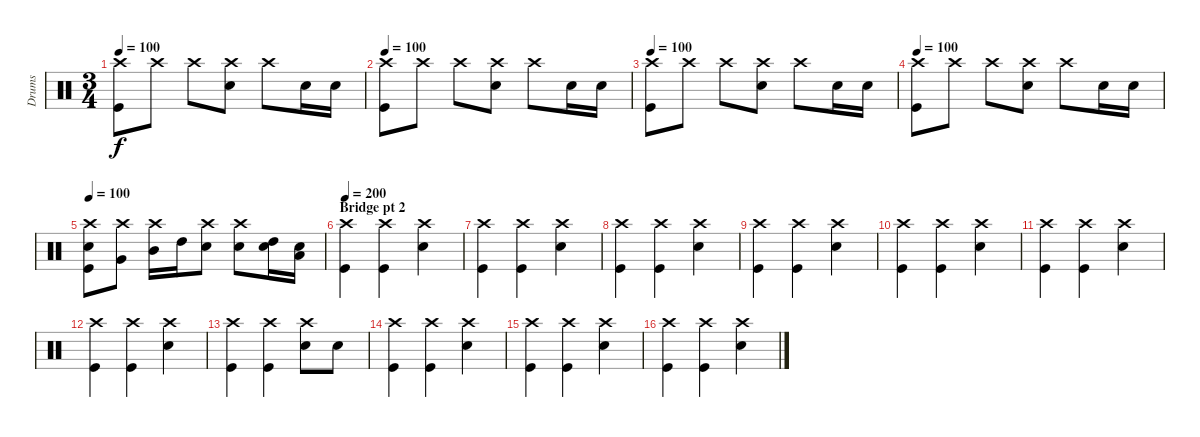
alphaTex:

\track ("Drums" "Drums") {instrument percussion}
\staff {score}
\articulation defaults
\ts (3 4)
\tempo 100
\clef neutral
\ks c
("Crash high (hit)" "Kick (hit)").8{dy f} "Crash high (hit)".8 "Crash high (hit)".8 ("Crash high (hit)" "Snare (hit) 2").8 "Crash high (hit)".8 "Snare (hit) 2".16 "Snare (hit) 2".16 |
\tempo 100
("Crash high (hit)" "Kick (hit)").8 "Crash high (hit)".8 "Crash high (hit)".8 ("Crash high (hit)" "Snare (hit) 2").8 "Crash high (hit)".8 "Snare (hit) 2".16 "Snare (hit) 2".16 |
\tempo 100
("Crash high (hit)" "Kick (hit)").8 "Crash high (hit)".8 "Crash high (hit)".8 ("Crash high (hit)" "Snare (hit) 2").8 "Crash high (hit)".8 "Snare (hit) 2".16 "Snare (hit) 2".16 |
\tempo 100
("Crash high (hit)" "Kick (hit)").8 "Crash high (hit)".8 "Crash high (hit)".8 ("Crash high (hit)" "Snare (hit) 2").8 "Crash high (hit)".8 "Snare (hit) 2".16 "Snare (hit) 2".16 |
\tempo 100
("Crash high (hit)" "Snare (hit) 2" "Kick (hit)").8 ("Crash high (hit)" "Very Low Tom (hit)").8 ("Crash high (hit)" "Mid Tom (hit)").16 "High Tom (hit)".16 ("Crash high (hit)" "Snare (hit) 2").8 ("Crash high (hit)" "Snare (hit) 2").8 ("High Tom (hit)" "Snare (hit) 2").16 ("Low Tom (hit)" "Snare (hit) 2").16 |
\section ("" "Bridge pt 2")
\tempo 200
("Crash high (hit)" "Kick (hit)").4 ("Crash high (hit)" "Kick (hit)").4 ("Crash high (hit)" "Snare (hit) 2").4 |
("Crash high (hit)" "Kick (hit)").4 ("Crash high (hit)" "Kick (hit)").4 ("Crash high (hit)" "Snare (hit) 2").4 |
("Crash high (hit)" "Kick (hit)").4 ("Crash high (hit)" "Kick (hit)").4 ("Crash high (hit)" "Snare (hit) 2").4 |
("Crash high (hit)" "Kick (hit)").4 ("Crash high (hit)" "Kick (hit)").4 ("Crash high (hit)" "Snare (hit) 2").4 |
("Crash high (hit)" "Kick (hit)").4 ("Crash high (hit)" "Kick (hit)").4 ("Crash high (hit)" "Snare (hit) 2").4 |
("Crash high (hit)" "Kick (hit)").4 ("Crash high (hit)" "Kick (hit)").4 ("Crash high (hit)" "Snare (hit) 2").4 |
("Crash high (hit)" "Kick (hit)").4 ("Crash high (hit)" "Kick (hit)").4 ("Crash high (hit)" "Snare (hit) 2").4 |
("Crash high (hit)" "Kick (hit)").4 ("Crash high (hit)" "Kick (hit)").4 ("Crash high (hit)" "Snare (hit) 2").8 "Snare (hit) 2".8 |
("Crash high (hit)" "Kick (hit)").4 ("Crash high (hit)" "Kick (hit)").4 ("Crash high (hit)" "Snare (hit) 2").4 |
("Crash high (hit)" "Kick (hit)").4 ("Crash high (hit)" "Kick (hit)").4 ("Crash high (hit)" "Snare (hit) 2").4 |
("Crash high (hit)" "Kick (hit)").4 ("Crash high (hit)" "Kick (hit)").4 ("Crash high (hit)" "Snare (hit) 2").4
